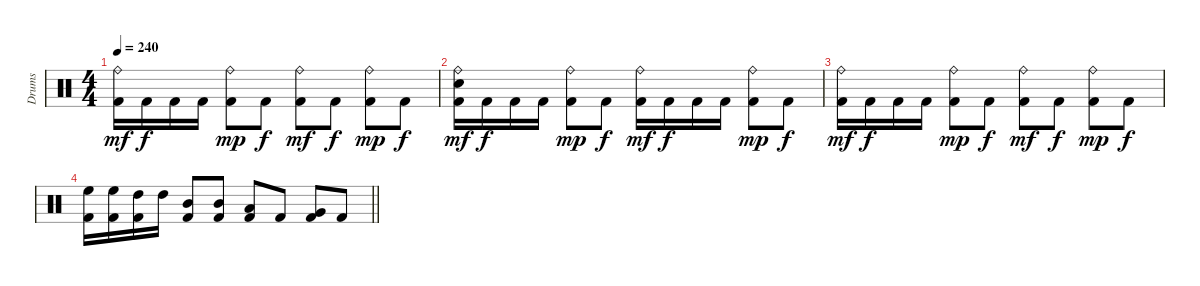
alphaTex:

\track ("Drums" "Drums") {instrument percussion}
\staff {score}
\articulation defaults
\ts (4 4)
\tempo 240
\clef neutral
\ks c
("Ride (bell)" "Kick (hit) 2").16{dy mf} "Kick (hit) 2".16{dy f} "Kick (hit) 2".16 "Kick (hit) 2".16 ("Ride (bell)" "Kick (hit) 2").8{dy mp} "Kick (hit) 2".8{dy f} ("Ride (bell)" "Kick (hit) 2").8{dy mf} "Kick (hit) 2".8{dy f} ("Ride (bell)" "Kick (hit) 2").8{dy mp} "Kick (hit) 2".8{dy f} |
("Ride (bell)" "Electric Snare (hit)" "Kick (hit) 2").16{dy mf} "Kick (hit) 2".16{dy f} "Kick (hit) 2".16 "Kick (hit) 2".16 ("Ride (bell)" "Kick (hit) 2").8{dy mp} "Kick (hit) 2".8{dy f} ("Ride (bell)" "Kick (hit) 2").16{dy mf} "Kick (hit) 2".16{dy f} "Kick (hit) 2".16 "Kick (hit) 2".16 ("Ride (bell)" "Kick (hit) 2").8{dy mp} "Kick (hit) 2".8{dy f} |
("Ride (bell)" "Kick (hit) 2").16{dy mf} "Kick (hit) 2".16{dy f} "Kick (hit) 2".16 "Kick (hit) 2".16 ("Ride (bell)" "Kick (hit) 2").8{dy mp} "Kick (hit) 2".8{dy f} ("Ride (bell)" "Kick (hit) 2").8{dy mf} "Kick (hit) 2".8{dy f} ("Ride (bell)" "Kick (hit) 2").8{dy mp} "Kick (hit) 2".8{dy f} |
\barLineRight lightlight
("High Floor Tom (hit)" "Kick (hit) 2").16 ("High Floor Tom (hit)" "Kick (hit) 2").16 ("High Tom (hit)" "Kick (hit) 2").16 "High Tom (hit)".16 ("Mid Tom (hit)" "Kick (hit) 2").8 ("Mid Tom (hit)" "Kick (hit) 2").8 ("Low Tom (hit)" "Kick (hit) 2").8 "Kick (hit) 2".8 ("Very Low Tom (hit)" "Kick (hit) 2").8 "Kick (hit) 2".8
